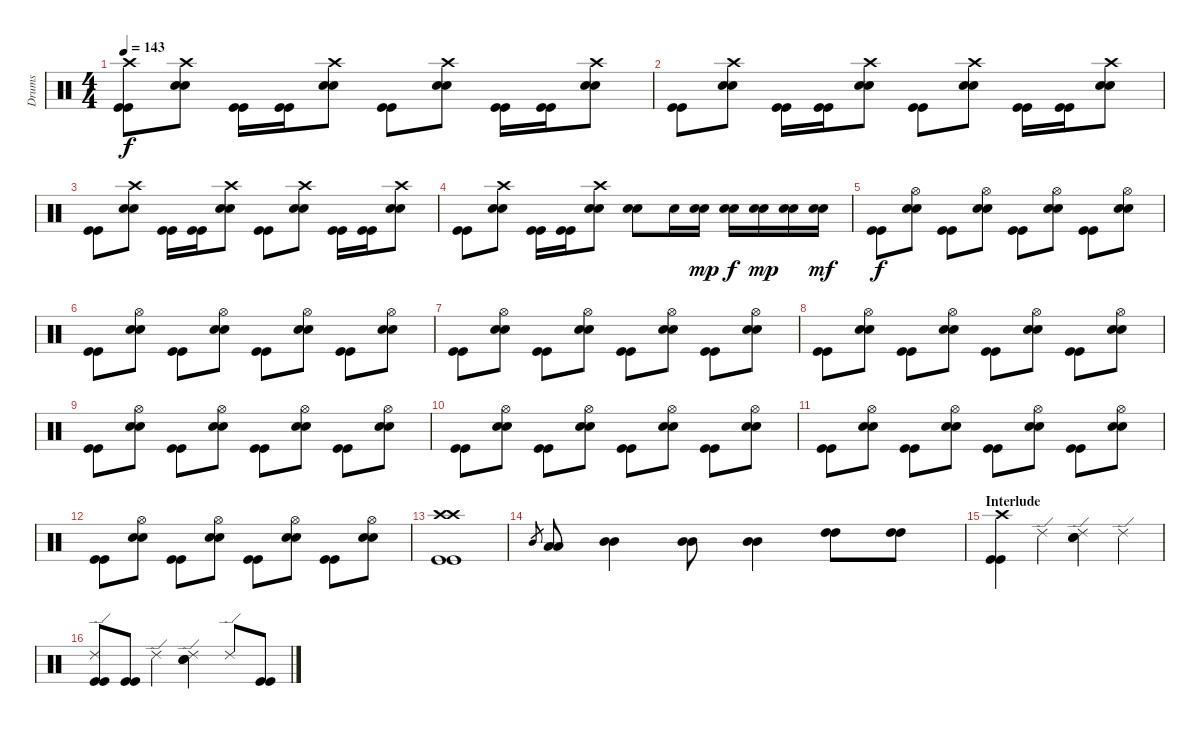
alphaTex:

\track ("Drums" "Drums") {instrument percussion}
\staff {score}
\articulation defaults
\ts (4 4)
\tempo 143
\clef neutral
\ks c
("Crash high (hit)" "Kick (hit)" "Kick (hit)").8{dy f} ("Crash high (hit)" "Electric Snare (hit)" "Electric Snare (hit)").8 ("Kick (hit)" "Kick (hit)").16 ("Kick (hit)" "Kick (hit)").16 ("Crash high (hit)" "Electric Snare (hit)" "Electric Snare (hit)").8 ("Kick (hit)" "Kick (hit)").8 ("Crash high (hit)" "Electric Snare (hit)" "Electric Snare (hit)").8 ("Kick (hit)" "Kick (hit)").16 ("Kick (hit)" "Kick (hit)").16 ("Crash high (hit)" "Electric Snare (hit)" "Electric Snare (hit)").8 |
("Kick (hit)" "Kick (hit)").8 ("Crash high (hit)" "Electric Snare (hit)" "Electric Snare (hit)").8 ("Kick (hit)" "Kick (hit)").16 ("Kick (hit)" "Kick (hit)").16 ("Crash high (hit)" "Electric Snare (hit)" "Electric Snare (hit)").8 ("Kick (hit)" "Kick (hit)").8 ("Crash high (hit)" "Electric Snare (hit)" "Electric Snare (hit)").8 ("Kick (hit)" "Kick (hit)").16 ("Kick (hit)" "Kick (hit)").16 ("Crash high (hit)" "Electric Snare (hit)" "Electric Snare (hit)").8 |
("Kick (hit)" "Kick (hit)").8 ("Crash high (hit)" "Electric Snare (hit)" "Electric Snare (hit)").8 ("Kick (hit)" "Kick (hit)").16 ("Kick (hit)" "Kick (hit)").16 ("Crash high (hit)" "Electric Snare (hit)" "Electric Snare (hit)").8 ("Kick (hit)" "Kick (hit)").8 ("Crash high (hit)" "Electric Snare (hit)" "Electric Snare (hit)").8 ("Kick (hit)" "Kick (hit)").16 ("Kick (hit)" "Kick (hit)").16 ("Crash high (hit)" "Electric Snare (hit)" "Electric Snare (hit)").8 |
("Kick (hit)" "Kick (hit)").8 ("Crash high (hit)" "Electric Snare (hit)" "Electric Snare (hit)").8 ("Kick (hit)" "Kick (hit)").16 ("Kick (hit)" "Kick (hit)").16 ("Crash high (hit)" "Electric Snare (hit)" "Electric Snare (hit)").8 ("Electric Snare (hit)" "Electric Snare (hit)").8 "Electric Snare (hit)".16 ("Electric Snare (hit)" "Electric Snare (hit)").16{dy mp} ("Electric Snare (hit)" "Electric Snare (hit)").16{dy f} ("Electric Snare (hit)" "Electric Snare (hit)").16{dy mp} ("Electric Snare (hit)" "Electric Snare (hit)").16 ("Electric Snare (hit)" "Electric Snare (hit)").16{dy mf} |
("Kick (hit)" "Kick (hit)").8{dy f} ("Hi-Hat (open)" "Electric Snare (hit)" "Electric Snare (hit)").8 ("Kick (hit)" "Kick (hit)").8 ("Hi-Hat (open)" "Electric Snare (hit)" "Electric Snare (hit)").8 ("Kick (hit)" "Kick (hit)").8 ("Hi-Hat (open)" "Electric Snare (hit)" "Electric Snare (hit)").8 ("Kick (hit)" "Kick (hit)").8 ("Hi-Hat (open)" "Electric Snare (hit)" "Electric Snare (hit)").8 |
("Kick (hit)" "Kick (hit)").8 ("Hi-Hat (open)" "Electric Snare (hit)" "Electric Snare (hit)").8 ("Kick (hit)" "Kick (hit)").8 ("Hi-Hat (open)" "Electric Snare (hit)" "Electric Snare (hit)").8 ("Kick (hit)" "Kick (hit)").8 ("Hi-Hat (open)" "Electric Snare (hit)" "Electric Snare (hit)").8 ("Kick (hit)" "Kick (hit)").8 ("Hi-Hat (open)" "Electric Snare (hit)" "Electric Snare (hit)").8 |
("Kick (hit)" "Kick (hit)").8 ("Hi-Hat (open)" "Electric Snare (hit)" "Electric Snare (hit)").8 ("Kick (hit)" "Kick (hit)").8 ("Hi-Hat (open)" "Electric Snare (hit)" "Electric Snare (hit)").8 ("Kick (hit)" "Kick (hit)").8 ("Hi-Hat (open)" "Electric Snare (hit)" "Electric Snare (hit)").8 ("Kick (hit)" "Kick (hit)").8 ("Hi-Hat (open)" "Electric Snare (hit)" "Electric Snare (hit)").8 |
("Kick (hit)" "Kick (hit)").8 ("Hi-Hat (open)" "Electric Snare (hit)" "Electric Snare (hit)").8 ("Kick (hit)" "Kick (hit)").8 ("Hi-Hat (open)" "Electric Snare (hit)" "Electric Snare (hit)").8 ("Kick (hit)" "Kick (hit)").8 ("Hi-Hat (open)" "Electric Snare (hit)" "Electric Snare (hit)").8 ("Kick (hit)" "Kick (hit)").8 ("Hi-Hat (open)" "Electric Snare (hit)" "Electric Snare (hit)").8 |
("Kick (hit)" "Kick (hit)").8 ("Hi-Hat (open)" "Electric Snare (hit)" "Electric Snare (hit)").8 ("Kick (hit)" "Kick (hit)").8 ("Hi-Hat (open)" "Electric Snare (hit)" "Electric Snare (hit)").8 ("Kick (hit)" "Kick (hit)").8 ("Hi-Hat (open)" "Electric Snare (hit)" "Electric Snare (hit)").8 ("Kick (hit)" "Kick (hit)").8 ("Hi-Hat (open)" "Electric Snare (hit)" "Electric Snare (hit)").8 |
("Kick (hit)" "Kick (hit)").8 ("Hi-Hat (open)" "Electric Snare (hit)" "Electric Snare (hit)").8 ("Kick (hit)" "Kick (hit)").8 ("Hi-Hat (open)" "Electric Snare (hit)" "Electric Snare (hit)").8 ("Kick (hit)" "Kick (hit)").8 ("Hi-Hat (open)" "Electric Snare (hit)" "Electric Snare (hit)").8 ("Kick (hit)" "Kick (hit)").8 ("Hi-Hat (open)" "Electric Snare (hit)" "Electric Snare (hit)").8 |
("Kick (hit)" "Kick (hit)").8 ("Hi-Hat (open)" "Electric Snare (hit)" "Electric Snare (hit)").8 ("Kick (hit)" "Kick (hit)").8 ("Hi-Hat (open)" "Electric Snare (hit)" "Electric Snare (hit)").8 ("Kick (hit)" "Kick (hit)").8 ("Hi-Hat (open)" "Electric Snare (hit)" "Electric Snare (hit)").8 ("Kick (hit)" "Kick (hit)").8 ("Hi-Hat (open)" "Electric Snare (hit)" "Electric Snare (hit)").8 |
("Kick (hit)" "Kick (hit)").8 ("Hi-Hat (open)" "Electric Snare (hit)" "Electric Snare (hit)").8 ("Kick (hit)" "Kick (hit)").8 ("Hi-Hat (open)" "Electric Snare (hit)" "Electric Snare (hit)").8 ("Kick (hit)" "Kick (hit)").8 ("Hi-Hat (open)" "Electric Snare (hit)" "Electric Snare (hit)").8 ("Kick (hit)" "Kick (hit)").8 ("Hi-Hat (open)" "Electric Snare (hit)" "Electric Snare (hit)").8 |
("Crash high (hit)" "Crash high (hit)" "Kick (hit)" "Kick (hit)").1 |
"Mid Tom (hit)".8{gr} ("Low Tom (hit)" "Low Tom (hit)").8 ("Mid Tom (hit)" "Mid Tom (hit)").4 ("Mid Tom (hit)" "Mid Tom (hit)").8 ("Mid Tom (hit)" "Mid Tom (hit)").4 ("High Tom (hit)" "High Tom (hit)").8 ("High Tom (hit)" "High Tom (hit)").8 |
\section ("" "Interlude")
("Crash high (hit)" "Kick (hit)" "Kick (hit)").4 "Ride (edge) 2".4 ("Ride (edge) 2" "Electric Snare (hit)" "Electric Snare (hit)").4 "Ride (edge) 2".4 |
("Ride (edge) 2" "Kick (hit)" "Kick (hit)").8 ("Kick (hit)" "Kick (hit)").8 "Ride (edge) 2".4 ("Ride (edge) 2" "Electric Snare (hit)" "Electric Snare (hit)").4 "Ride (edge) 2".8 ("Kick (hit)" "Kick (hit)").8
